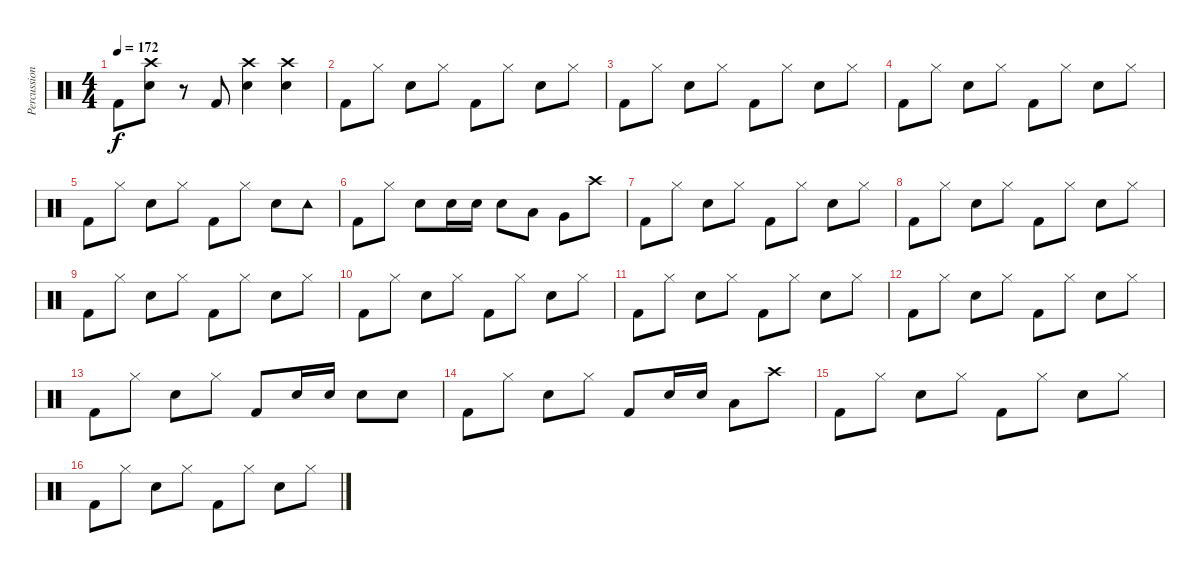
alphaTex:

\track ("Percussion" "Percussion") {instrument percussion}
\staff {score}
\articulation defaults
\ts (4 4)
\tempo 172
\clef neutral
\ks c "Kick (hit) 2".8{dy f}
("Crash high (hit)" "Snare (hit) 2").8 r.8 "Kick (hit) 2".8 ("Crash high (hit)" "Snare (hit) 2").4 ("Crash high (hit)" "Snare (hit) 2").4 |
"Kick (hit) 2".8 "Hi-Hat (closed)".8 "Snare (hit) 2".8 "Hi-Hat (closed)".8 "Kick (hit) 2".8 "Hi-Hat (closed)".8 "Snare (hit) 2".8 "Hi-Hat (closed)".8 |
"Kick (hit) 2".8 "Hi-Hat (closed)".8 "Snare (hit) 2".8 "Hi-Hat (closed)".8 "Kick (hit) 2".8 "Hi-Hat (closed)".8 "Snare (hit) 2".8 "Hi-Hat (closed)".8 |
"Kick (hit) 2".8 "Hi-Hat (closed)".8 "Snare (hit) 2".8 "Hi-Hat (closed)".8 "Kick (hit) 2".8 "Hi-Hat (closed)".8 "Snare (hit) 2".8 "Hi-Hat (closed)".8 |
"Kick (hit) 2".8 "Hi-Hat (closed)".8 "Snare (hit) 2".8 "Hi-Hat (closed)".8 "Kick (hit) 2".8 "Hi-Hat (closed)".8 "Snare (hit) 2".8 "Tambourine (hit)".8 |
"Kick (hit) 2".8 "Hi-Hat (closed)".8 "Snare (hit) 2".8 "Snare (hit) 2".16 "Snare (hit) 2".16 "Snare (hit) 2".8 "Low Tom (hit)".8 "Very Low Tom (hit)".8 "Crash high (hit)".8 |
"Kick (hit) 2".8 "Hi-Hat (closed)".8 "Snare (hit) 2".8 "Hi-Hat (closed)".8 "Kick (hit) 2".8 "Hi-Hat (closed)".8 "Snare (hit) 2".8 "Hi-Hat (closed)".8 |
"Kick (hit) 2".8 "Hi-Hat (closed)".8 "Snare (hit) 2".8 "Hi-Hat (closed)".8 "Kick (hit) 2".8 "Hi-Hat (closed)".8 "Snare (hit) 2".8 "Hi-Hat (closed)".8 |
"Kick (hit) 2".8 "Hi-Hat (closed)".8 "Snare (hit) 2".8 "Hi-Hat (closed)".8 "Kick (hit) 2".8 "Hi-Hat (closed)".8 "Snare (hit) 2".8 "Hi-Hat (closed)".8 |
"Kick (hit) 2".8 "Hi-Hat (closed)".8 "Snare (hit) 2".8 "Hi-Hat (closed)".8 "Kick (hit) 2".8 "Hi-Hat (closed)".8 "Snare (hit) 2".8 "Hi-Hat (closed)".8 |
"Kick (hit) 2".8 "Hi-Hat (closed)".8 "Snare (hit) 2".8 "Hi-Hat (closed)".8 "Kick (hit) 2".8 "Hi-Hat (closed)".8 "Snare (hit) 2".8 "Hi-Hat (closed)".8 |
"Kick (hit) 2".8 "Hi-Hat (closed)".8 "Snare (hit) 2".8 "Hi-Hat (closed)".8 "Kick (hit) 2".8 "Hi-Hat (closed)".8 "Snare (hit) 2".8 "Hi-Hat (closed)".8 |
"Kick (hit) 2".8 "Hi-Hat (closed)".8 "Snare (hit) 2".8 "Hi-Hat (closed)".8 "Kick (hit) 2".8 "Snare (hit) 2".16 "Snare (hit) 2".16 "Snare (hit) 2".8 "Snare (hit) 2".8 |
"Kick (hit) 2".8 "Hi-Hat (closed)".8 "Snare (hit) 2".8 "Hi-Hat (closed)".8 "Kick (hit) 2".8 "Snare (hit) 2".16 "Snare (hit) 2".16 "Low Tom (hit)".8 "Crash high (hit)".8 |
"Kick (hit) 2".8 "Hi-Hat (closed)".8 "Snare (hit) 2".8 "Hi-Hat (closed)".8 "Kick (hit) 2".8 "Hi-Hat (closed)".8 "Snare (hit) 2".8 "Hi-Hat (closed)".8 |
"Kick (hit) 2".8 "Hi-Hat (closed)".8 "Snare (hit) 2".8 "Hi-Hat (closed)".8 "Kick (hit) 2".8 "Hi-Hat (closed)".8 "Snare (hit) 2".8 "Hi-Hat (closed)".8
